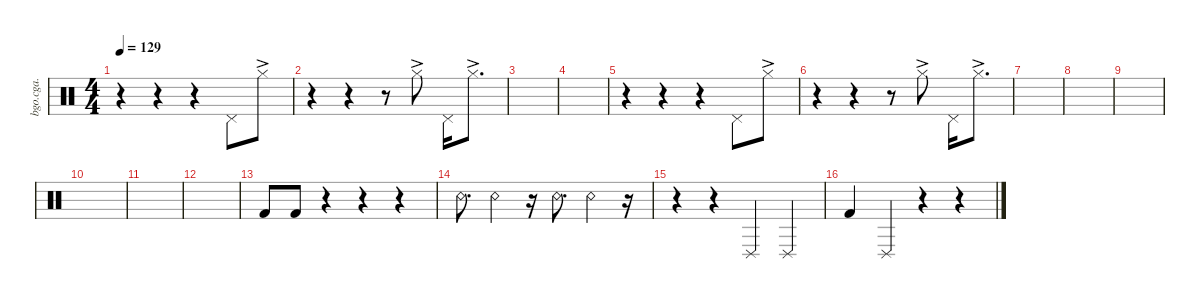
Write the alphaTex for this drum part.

\defaultSystemsLayout 4
\hideDynamics
\bracketExtendMode nobrackets
\otherSystemsTrackNameOrientation horizontal
\track ("Alex's percussion" "bgo.cga.") {instrument percussion}
\staff {score}
\articulation defaults
\ts (4 4)
\tempo 129
\clef neutral
\ks c
r.4{dy f} r.4 r.4 "Pedal Hi-Hat (hit)".8{dy mf} "Hi-Hat (closed)"{ac}.8 |
r.4 r.4 r.8 "Hi-Hat (closed)"{ac}.8 "Pedal Hi-Hat (hit)".16 "Hi-Hat (closed)"{ac}.8{d} |
|
|
r.4 r.4 r.4 "Pedal Hi-Hat (hit)".8 "Hi-Hat (closed)"{ac}.8 |
r.4 r.4 r.8 "Hi-Hat (closed)"{ac}.8 "Pedal Hi-Hat (hit)".16 "Hi-Hat (closed)"{ac}.8{d} |
|
|
|
|
|
|
"Kick (hit) 2".8 "Kick (hit) 2".8 r.4 r.4 r.4 |
"Snare (rim shot)".8{d} "Snare (rim shot)".4 r.16 "Snare (rim shot)".8{d} "Snare (rim shot)".4 r.16 |
r.4 r.4 "Conga low (slap)".4 "Conga low (slap)".4 |
"Kick (hit) 2".4 "Conga low (slap)".4 r.4 r.4
